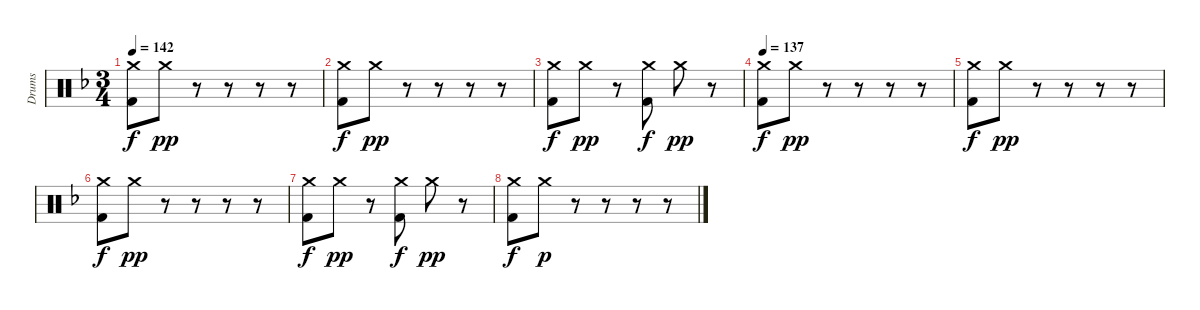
\track ("Drums" "Drums") {instrument percussion}
\staff {score}
\articulation defaults
\ts (3 4)
\tempo 142
\clef neutral
\ks dminor
("Crash medium (hit)" "Kick (hit) 2").8{dy f} "Crash medium (hit)".8{dy pp} r.8 r.8 r.8 r.8 |
("Crash medium (hit)" "Kick (hit) 2").8{dy f} "Crash medium (hit)".8{dy pp} r.8 r.8 r.8 r.8 |
("Crash medium (hit)" "Kick (hit) 2").8{dy f} "Crash medium (hit)".8{dy pp} r.8 ("Crash medium (hit)" "Kick (hit) 2").8{dy f} "Crash medium (hit)".8{dy pp} r.8 |
\tempo 137
("Crash medium (hit)" "Kick (hit) 2").8{dy f} "Crash medium (hit)".8{dy pp} r.8 r.8 r.8 r.8 |
("Crash medium (hit)" "Kick (hit) 2").8{dy f} "Crash medium (hit)".8{dy pp} r.8 r.8 r.8 r.8 |
("Crash medium (hit)" "Kick (hit) 2").8{dy f} "Crash medium (hit)".8{dy pp} r.8 r.8 r.8 r.8 |
("Crash medium (hit)" "Kick (hit) 2").8{dy f} "Crash medium (hit)".8{dy pp} r.8 ("Crash medium (hit)" "Kick (hit) 2").8{dy f} "Crash medium (hit)".8{dy pp} r.8 |
("Crash medium (hit)" "Kick (hit) 2").8{dy f} "Crash medium (hit)".8{dy p} r.8 r.8 r.8 r.8
